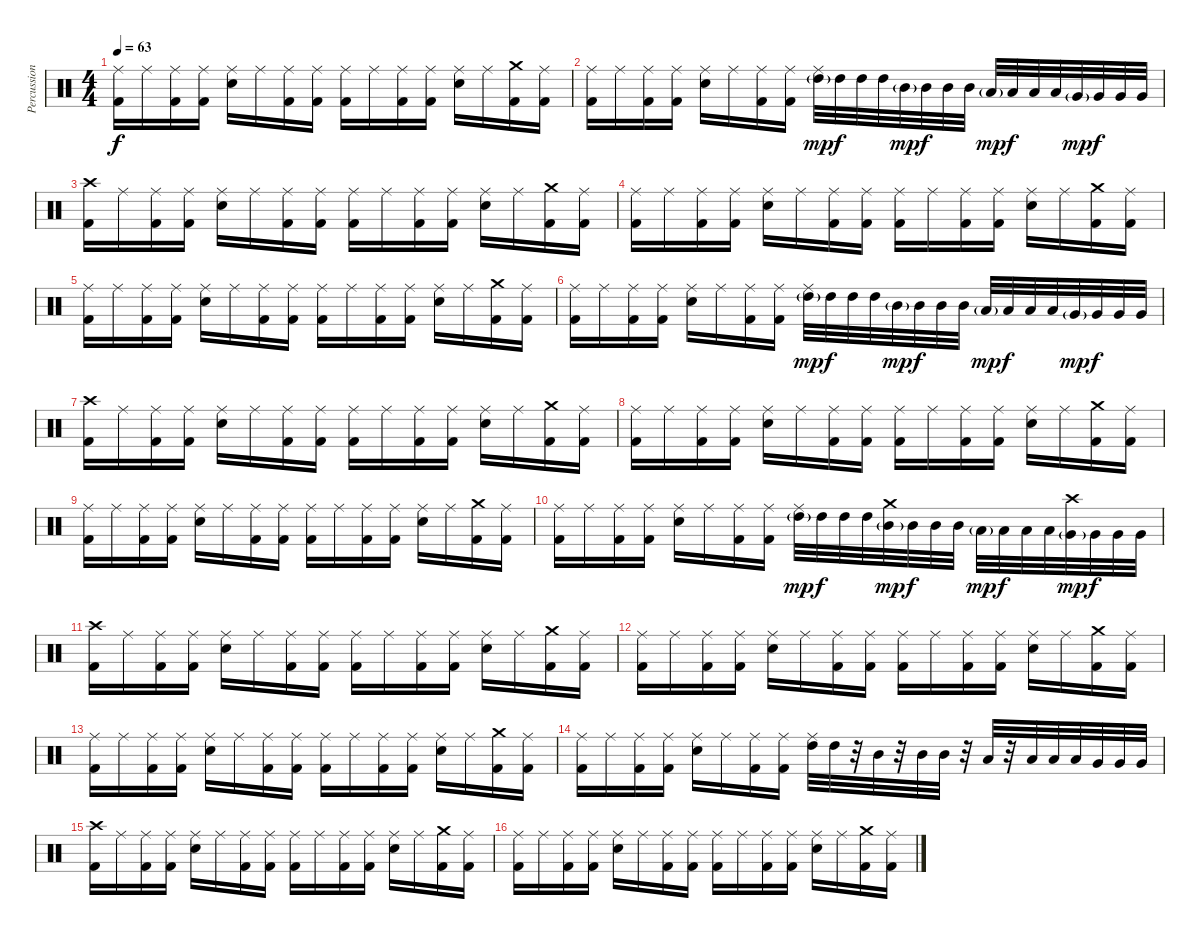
\track ("Percussion" "Percussion") {instrument percussion}
\staff {score}
\articulation defaults
\ts (4 4)
\tempo 63
\clef neutral
\ks c
("Ride (middle)" "Kick (hit) 2").16{dy f} "Ride (middle)".16 ("Ride (middle)" "Kick (hit) 2").16 ("Ride (middle)" "Kick (hit) 2").16 ("Ride (middle)" "Electric Snare (hit)").16 "Ride (middle)".16 ("Ride (middle)" "Kick (hit) 2").16 ("Ride (middle)" "Kick (hit) 2").16 ("Ride (middle)" "Kick (hit) 2").16 "Ride (middle)".16 ("Ride (middle)" "Kick (hit) 2").16 ("Ride (middle)" "Kick (hit) 2").16 ("Ride (middle)" "Electric Snare (hit)").16 "Ride (middle)".16 ("Crash medium (hit)" "Kick (hit) 2").16 ("Ride (middle)" "Kick (hit) 2").16 |
("Ride (middle)" "Kick (hit) 2").16 "Ride (middle)".16 ("Ride (middle)" "Kick (hit) 2").16 ("Ride (middle)" "Kick (hit) 2").16 ("Ride (middle)" "Electric Snare (hit)").16 "Ride (middle)".16 ("Ride (middle)" "Kick (hit) 2").16 ("Ride (middle)" "Kick (hit) 2").16 ("Ride (middle)" "High Tom (hit)"{g}).32{dy mp} "High Tom (hit)".32{dy f} "High Tom (hit)".32 "High Tom (hit)".32 "Mid Tom (hit)"{g}.32{dy mp} "Mid Tom (hit)".32{dy f} "Mid Tom (hit)".32 "Mid Tom (hit)".32 "Low Tom (hit)"{g}.32{dy mp} "Low Tom (hit)".32{dy f} "Low Tom (hit)".32 "Low Tom (hit)".32 "Very Low Tom (hit)"{g}.32{dy mp} "Very Low Tom (hit)".32{dy f} "Very Low Tom (hit)".32 "Very Low Tom (hit)".32 |
("Crash high (hit)" "Kick (hit) 2").16 "Ride (middle)".16 ("Ride (middle)" "Kick (hit) 2").16 ("Ride (middle)" "Kick (hit) 2").16 ("Ride (middle)" "Electric Snare (hit)").16 "Ride (middle)".16 ("Ride (middle)" "Kick (hit) 2").16 ("Ride (middle)" "Kick (hit) 2").16 ("Ride (middle)" "Kick (hit) 2").16 "Ride (middle)".16 ("Ride (middle)" "Kick (hit) 2").16 ("Ride (middle)" "Kick (hit) 2").16 ("Ride (middle)" "Electric Snare (hit)").16 "Ride (middle)".16 ("Crash medium (hit)" "Kick (hit) 2").16 ("Ride (middle)" "Kick (hit) 2").16 |
("Ride (middle)" "Kick (hit) 2").16 "Ride (middle)".16 ("Ride (middle)" "Kick (hit) 2").16 ("Ride (middle)" "Kick (hit) 2").16 ("Ride (middle)" "Electric Snare (hit)").16 "Ride (middle)".16 ("Ride (middle)" "Kick (hit) 2").16 ("Ride (middle)" "Kick (hit) 2").16 ("Ride (middle)" "Kick (hit) 2").16 "Ride (middle)".16 ("Ride (middle)" "Kick (hit) 2").16 ("Ride (middle)" "Kick (hit) 2").16 ("Ride (middle)" "Electric Snare (hit)").16 "Ride (middle)".16 ("Crash medium (hit)" "Kick (hit) 2").16 ("Ride (middle)" "Kick (hit) 2").16 |
("Ride (middle)" "Kick (hit) 2").16 "Ride (middle)".16 ("Ride (middle)" "Kick (hit) 2").16 ("Ride (middle)" "Kick (hit) 2").16 ("Ride (middle)" "Electric Snare (hit)").16 "Ride (middle)".16 ("Ride (middle)" "Kick (hit) 2").16 ("Ride (middle)" "Kick (hit) 2").16 ("Ride (middle)" "Kick (hit) 2").16 "Ride (middle)".16 ("Ride (middle)" "Kick (hit) 2").16 ("Ride (middle)" "Kick (hit) 2").16 ("Ride (middle)" "Electric Snare (hit)").16 "Ride (middle)".16 ("Crash medium (hit)" "Kick (hit) 2").16 ("Ride (middle)" "Kick (hit) 2").16 |
("Ride (middle)" "Kick (hit) 2").16 "Ride (middle)".16 ("Ride (middle)" "Kick (hit) 2").16 ("Ride (middle)" "Kick (hit) 2").16 ("Ride (middle)" "Electric Snare (hit)").16 "Ride (middle)".16 ("Ride (middle)" "Kick (hit) 2").16 ("Ride (middle)" "Kick (hit) 2").16 ("Ride (middle)" "High Tom (hit)"{g}).32{dy mp} "High Tom (hit)".32{dy f} "High Tom (hit)".32 "High Tom (hit)".32 "Mid Tom (hit)"{g}.32{dy mp} "Mid Tom (hit)".32{dy f} "Mid Tom (hit)".32 "Mid Tom (hit)".32 "Low Tom (hit)"{g}.32{dy mp} "Low Tom (hit)".32{dy f} "Low Tom (hit)".32 "Low Tom (hit)".32 "Very Low Tom (hit)"{g}.32{dy mp} "Very Low Tom (hit)".32{dy f} "Very Low Tom (hit)".32 "Very Low Tom (hit)".32 |
("Crash high (hit)" "Kick (hit) 2").16 "Ride (middle)".16 ("Ride (middle)" "Kick (hit) 2").16 ("Ride (middle)" "Kick (hit) 2").16 ("Ride (middle)" "Electric Snare (hit)").16 "Ride (middle)".16 ("Ride (middle)" "Kick (hit) 2").16 ("Ride (middle)" "Kick (hit) 2").16 ("Ride (middle)" "Kick (hit) 2").16 "Ride (middle)".16 ("Ride (middle)" "Kick (hit) 2").16 ("Ride (middle)" "Kick (hit) 2").16 ("Ride (middle)" "Electric Snare (hit)").16 "Ride (middle)".16 ("Crash medium (hit)" "Kick (hit) 2").16 ("Ride (middle)" "Kick (hit) 2").16 |
("Ride (middle)" "Kick (hit) 2").16 "Ride (middle)".16 ("Ride (middle)" "Kick (hit) 2").16 ("Ride (middle)" "Kick (hit) 2").16 ("Ride (middle)" "Electric Snare (hit)").16 "Ride (middle)".16 ("Ride (middle)" "Kick (hit) 2").16 ("Ride (middle)" "Kick (hit) 2").16 ("Ride (middle)" "Kick (hit) 2").16 "Ride (middle)".16 ("Ride (middle)" "Kick (hit) 2").16 ("Ride (middle)" "Kick (hit) 2").16 ("Ride (middle)" "Electric Snare (hit)").16 "Ride (middle)".16 ("Crash medium (hit)" "Kick (hit) 2").16 ("Ride (middle)" "Kick (hit) 2").16 |
("Ride (middle)" "Kick (hit) 2").16 "Ride (middle)".16 ("Ride (middle)" "Kick (hit) 2").16 ("Ride (middle)" "Kick (hit) 2").16 ("Ride (middle)" "Electric Snare (hit)").16 "Ride (middle)".16 ("Ride (middle)" "Kick (hit) 2").16 ("Ride (middle)" "Kick (hit) 2").16 ("Ride (middle)" "Kick (hit) 2").16 "Ride (middle)".16 ("Ride (middle)" "Kick (hit) 2").16 ("Ride (middle)" "Kick (hit) 2").16 ("Ride (middle)" "Electric Snare (hit)").16 "Ride (middle)".16 ("Crash medium (hit)" "Kick (hit) 2").16 ("Ride (middle)" "Kick (hit) 2").16 |
("Ride (middle)" "Kick (hit) 2").16 "Ride (middle)".16 ("Ride (middle)" "Kick (hit) 2").16 ("Ride (middle)" "Kick (hit) 2").16 ("Ride (middle)" "Electric Snare (hit)").16 "Ride (middle)".16 ("Ride (middle)" "Kick (hit) 2").16 ("Ride (middle)" "Kick (hit) 2").16 ("Ride (middle)" "High Tom (hit)"{g}).32{dy mp} "High Tom (hit)".32{dy f} "High Tom (hit)".32 "High Tom (hit)".32 ("Crash medium (hit)" "Mid Tom (hit)"{g}).32{dy mp} "Mid Tom (hit)".32{dy f} "Mid Tom (hit)".32 "Mid Tom (hit)".32 "Low Tom (hit)"{g}.32{dy mp} "Low Tom (hit)".32{dy f} "Low Tom (hit)".32 "Low Tom (hit)".32 ("Crash high (hit)" "Very Low Tom (hit)"{g}).32{dy mp} "Very Low Tom (hit)".32{dy f} "Very Low Tom (hit)".32 "Very Low Tom (hit)".32 |
("Crash high (hit)" "Kick (hit) 2").16 "Ride (middle)".16 ("Ride (middle)" "Kick (hit) 2").16 ("Ride (middle)" "Kick (hit) 2").16 ("Ride (middle)" "Electric Snare (hit)").16 "Ride (middle)".16 ("Ride (middle)" "Kick (hit) 2").16 ("Ride (middle)" "Kick (hit) 2").16 ("Ride (middle)" "Kick (hit) 2").16 "Ride (middle)".16 ("Ride (middle)" "Kick (hit) 2").16 ("Ride (middle)" "Kick (hit) 2").16 ("Ride (middle)" "Electric Snare (hit)").16 "Ride (middle)".16 ("Crash medium (hit)" "Kick (hit) 2").16 ("Ride (middle)" "Kick (hit) 2").16 |
("Ride (middle)" "Kick (hit) 2").16 "Ride (middle)".16 ("Ride (middle)" "Kick (hit) 2").16 ("Ride (middle)" "Kick (hit) 2").16 ("Ride (middle)" "Electric Snare (hit)").16 "Ride (middle)".16 ("Ride (middle)" "Kick (hit) 2").16 ("Ride (middle)" "Kick (hit) 2").16 ("Ride (middle)" "Kick (hit) 2").16 "Ride (middle)".16 ("Ride (middle)" "Kick (hit) 2").16 ("Ride (middle)" "Kick (hit) 2").16 ("Ride (middle)" "Electric Snare (hit)").16 "Ride (middle)".16 ("Crash medium (hit)" "Kick (hit) 2").16 ("Ride (middle)" "Kick (hit) 2").16 |
("Ride (middle)" "Kick (hit) 2").16 "Ride (middle)".16 ("Ride (middle)" "Kick (hit) 2").16 ("Ride (middle)" "Kick (hit) 2").16 ("Ride (middle)" "Electric Snare (hit)").16 "Ride (middle)".16 ("Ride (middle)" "Kick (hit) 2").16 ("Ride (middle)" "Kick (hit) 2").16 ("Ride (middle)" "Kick (hit) 2").16 "Ride (middle)".16 ("Ride (middle)" "Kick (hit) 2").16 ("Ride (middle)" "Kick (hit) 2").16 ("Ride (middle)" "Electric Snare (hit)").16 "Ride (middle)".16 ("Crash medium (hit)" "Kick (hit) 2").16 ("Ride (middle)" "Kick (hit) 2").16 |
("Ride (middle)" "Kick (hit) 2").16 "Ride (middle)".16 ("Ride (middle)" "Kick (hit) 2").16 ("Ride (middle)" "Kick (hit) 2").16 ("Ride (middle)" "Electric Snare (hit)").16 "Ride (middle)".16 ("Ride (middle)" "Kick (hit) 2").16 ("Ride (middle)" "Kick (hit) 2").16 ("Ride (middle)" "High Tom (hit)").32 "High Tom (hit)".32 r.32 "Mid Tom (hit)".32 r.32 "Mid Tom (hit)".32 "Mid Tom (hit)".32 r.32 "Low Tom (hit)".32 r.32 "Low Tom (hit)".32 "Low Tom (hit)".32 "Low Tom (hit)".32 "Very Low Tom (hit)".32 "Very Low Tom (hit)".32 "Very Low Tom (hit)".32 |
("Crash high (hit)" "Kick (hit) 2").16 "Ride (middle)".16 ("Ride (middle)" "Kick (hit) 2").16 ("Ride (middle)" "Kick (hit) 2").16 ("Ride (middle)" "Electric Snare (hit)").16 "Ride (middle)".16 ("Ride (middle)" "Kick (hit) 2").16 ("Ride (middle)" "Kick (hit) 2").16 ("Ride (middle)" "Kick (hit) 2").16 "Ride (middle)".16 ("Ride (middle)" "Kick (hit) 2").16 ("Ride (middle)" "Kick (hit) 2").16 ("Ride (middle)" "Electric Snare (hit)").16 "Ride (middle)".16 ("Crash medium (hit)" "Kick (hit) 2").16 ("Ride (middle)" "Kick (hit) 2").16 |
("Ride (middle)" "Kick (hit) 2").16 "Ride (middle)".16 ("Ride (middle)" "Kick (hit) 2").16 ("Ride (middle)" "Kick (hit) 2").16 ("Ride (middle)" "Electric Snare (hit)").16 "Ride (middle)".16 ("Ride (middle)" "Kick (hit) 2").16 ("Ride (middle)" "Kick (hit) 2").16 ("Ride (middle)" "Kick (hit) 2").16 "Ride (middle)".16 ("Ride (middle)" "Kick (hit) 2").16 ("Ride (middle)" "Kick (hit) 2").16 ("Ride (middle)" "Electric Snare (hit)").16 "Ride (middle)".16 ("Crash medium (hit)" "Kick (hit) 2").16 ("Ride (middle)" "Kick (hit) 2").16
